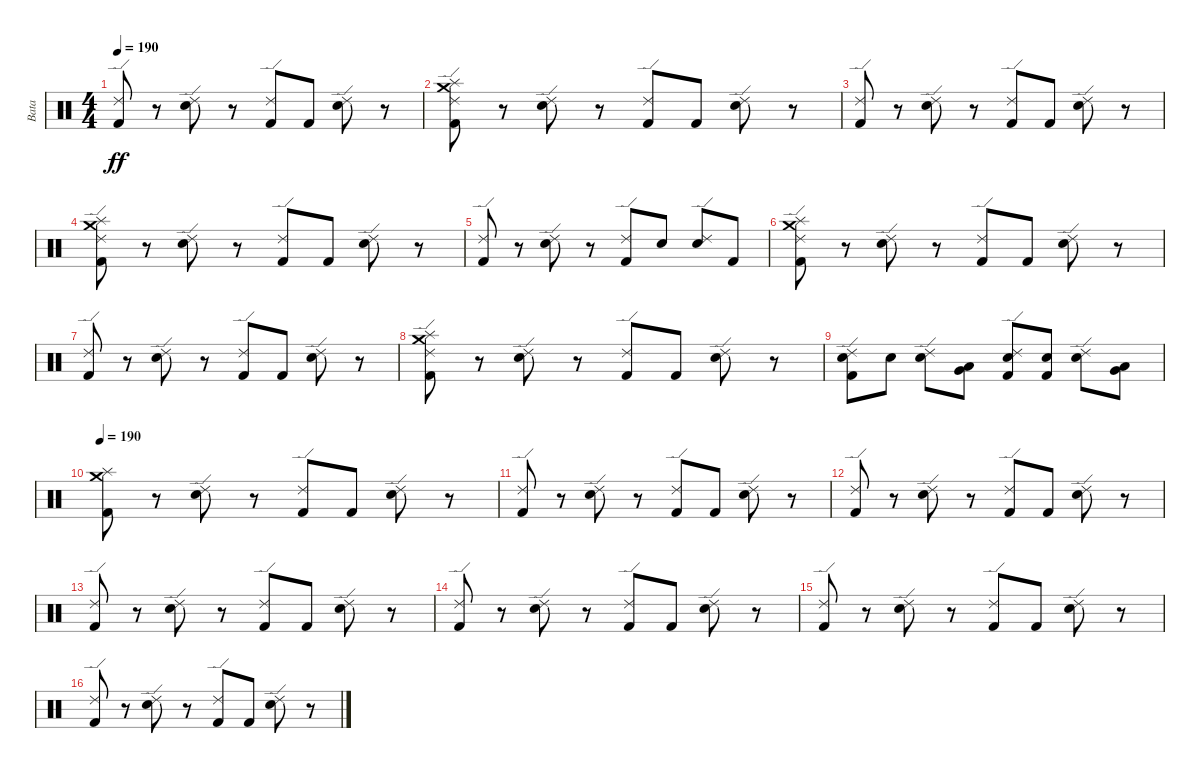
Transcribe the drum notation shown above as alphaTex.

\track ("Bata" "Bata") {instrument percussion}
\staff {score}
\articulation defaults
\ts (4 4)
\tempo 190
\clef neutral
\ks c
("Ride (edge) 2" "Kick (hit) 2").8{dy ff} r.8 ("Ride (edge) 2" "Snare (hit) 2").8 r.8 ("Kick (hit) 2" "Ride (edge) 2").8 "Kick (hit) 2".8 ("Ride (edge) 2" "Snare (hit) 2").8 r.8 |
("Splash (hit)" "Crash medium (hit)" "Ride (edge) 2" "Kick (hit) 2").8 r.8 ("Snare (hit) 2" "Ride (edge) 2").8 r.8 ("Kick (hit) 2" "Ride (edge) 2").8 "Kick (hit) 2".8 ("Ride (edge) 2" "Snare (hit) 2").8 r.8 |
("Kick (hit) 2" "Ride (edge) 2").8 r.8 ("Snare (hit) 2" "Ride (edge) 2").8 r.8 ("Ride (edge) 2" "Kick (hit) 2").8 "Kick (hit) 2".8 ("Ride (edge) 2" "Snare (hit) 2").8 r.8 |
("Kick (hit) 2" "Ride (edge) 2" "Splash (hit)" "Crash medium (hit)").8 r.8 ("Snare (hit) 2" "Ride (edge) 2").8 r.8 ("Ride (edge) 2" "Kick (hit) 2").8 "Kick (hit) 2".8 ("Snare (hit) 2" "Ride (edge) 2").8 r.8 |
("Kick (hit) 2" "Ride (edge) 2").8 r.8 ("Ride (edge) 2" "Snare (hit) 2").8 r.8 ("Ride (edge) 2" "Kick (hit) 2").8 "Snare (hit) 2".8 ("Snare (hit) 2" "Ride (edge) 2").8 "Kick (hit) 2".8 |
("Splash (hit)" "Crash medium (hit)" "Ride (edge) 2" "Kick (hit) 2").8 r.8 ("Ride (edge) 2" "Snare (hit) 2").8 r.8 ("Kick (hit) 2" "Ride (edge) 2").8 "Kick (hit) 2".8 ("Snare (hit) 2" "Ride (edge) 2").8 r.8 |
("Ride (edge) 2" "Kick (hit) 2").8 r.8 ("Snare (hit) 2" "Ride (edge) 2").8 r.8 ("Kick (hit) 2" "Ride (edge) 2").8 "Kick (hit) 2".8 ("Ride (edge) 2" "Snare (hit) 2").8 r.8 |
("Crash medium (hit)" "Splash (hit)" "Ride (edge) 2" "Kick (hit) 2").8 r.8 ("Snare (hit) 2" "Ride (edge) 2").8 r.8 ("Kick (hit) 2" "Ride (edge) 2").8 "Kick (hit) 2".8 ("Ride (edge) 2" "Snare (hit) 2").8 r.8 |
("Kick (hit) 2" "Ride (edge) 2" "Snare (hit) 2").8 "Snare (hit) 2".8 ("Snare (hit) 2" "Ride (edge) 2").8 ("Low Tom (hit)" "Very Low Tom (hit)").8 ("Snare (hit) 2" "Ride (edge) 2" "Kick (hit) 2").8 ("Snare (hit) 2" "Kick (hit) 2").8 ("Ride (edge) 2" "Snare (hit) 2").8 ("Very Low Tom (hit)" "Low Tom (hit)").8 |
\tempo 190
("Kick (hit) 2" "Splash (hit)" "Crash medium (hit)").8 r.8 ("Ride (edge) 2" "Snare (hit) 2").8 r.8 ("Ride (edge) 2" "Kick (hit) 2").8 "Kick (hit) 2".8 ("Snare (hit) 2" "Ride (edge) 2").8 r.8 |
("Ride (edge) 2" "Kick (hit) 2").8 r.8 ("Ride (edge) 2" "Snare (hit) 2").8 r.8 ("Kick (hit) 2" "Ride (edge) 2").8 "Kick (hit) 2".8 ("Snare (hit) 2" "Ride (edge) 2").8 r.8 |
("Ride (edge) 2" "Kick (hit) 2").8 r.8 ("Snare (hit) 2" "Ride (edge) 2").8 r.8 ("Kick (hit) 2" "Ride (edge) 2").8 "Kick (hit) 2".8 ("Ride (edge) 2" "Snare (hit) 2").8 r.8 |
("Ride (edge) 2" "Kick (hit) 2").8 r.8 ("Snare (hit) 2" "Ride (edge) 2").8 r.8 ("Kick (hit) 2" "Ride (edge) 2").8 "Kick (hit) 2".8 ("Ride (edge) 2" "Snare (hit) 2").8 r.8 |
("Kick (hit) 2" "Ride (edge) 2").8 r.8 ("Snare (hit) 2" "Ride (edge) 2").8 r.8 ("Ride (edge) 2" "Kick (hit) 2").8 "Kick (hit) 2".8 ("Ride (edge) 2" "Snare (hit) 2").8 r.8 |
("Kick (hit) 2" "Ride (edge) 2").8 r.8 ("Ride (edge) 2" "Snare (hit) 2").8 r.8 ("Ride (edge) 2" "Kick (hit) 2").8 "Kick (hit) 2".8 ("Snare (hit) 2" "Ride (edge) 2").8 r.8 |
("Kick (hit) 2" "Ride (edge) 2").8 r.8 ("Ride (edge) 2" "Snare (hit) 2").8 r.8 ("Kick (hit) 2" "Ride (edge) 2").8 "Kick (hit) 2".8 ("Snare (hit) 2" "Ride (edge) 2").8 r.8
